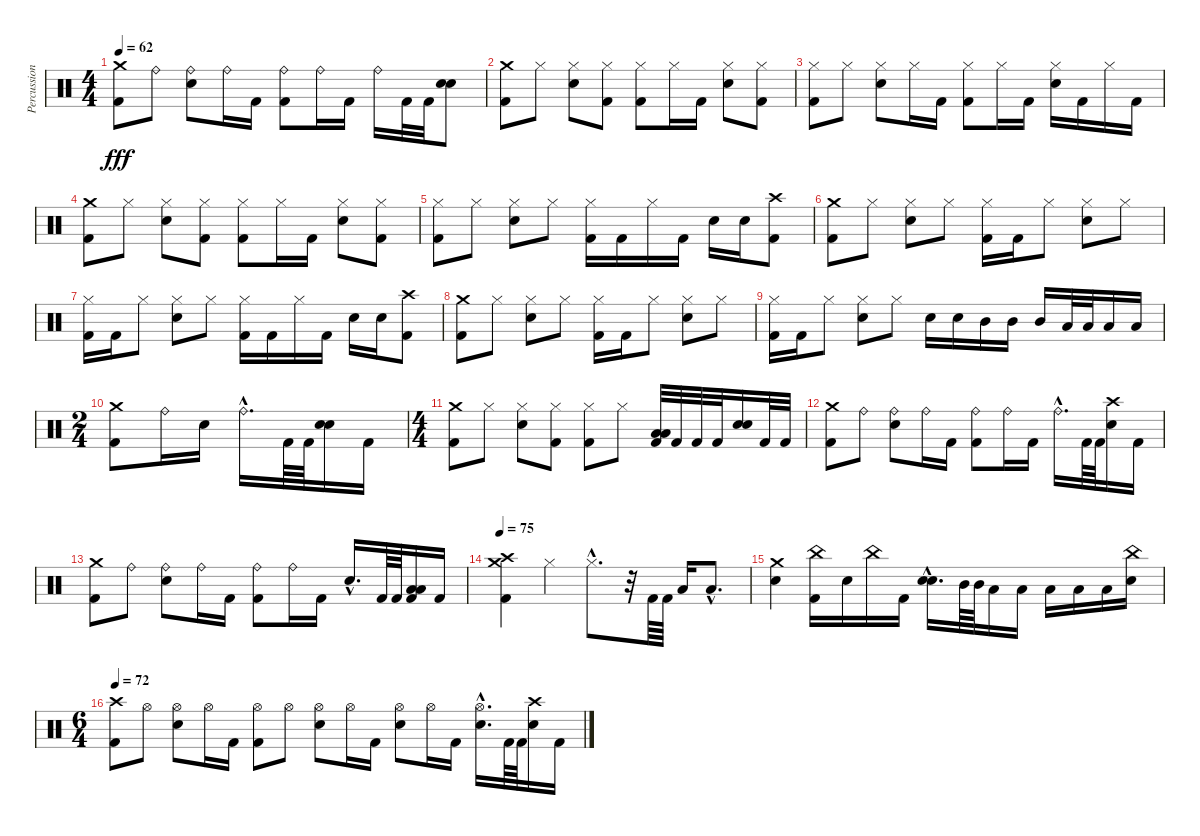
\track ("Percussion" "Percussion") {instrument percussion}
\staff {score}
\articulation defaults
\ts (4 4)
\tempo 62
\clef neutral
\ks c
("Crash medium (hit)" "Kick (hit) 2").8{dy fff} "Ride (bell)".8 ("Ride (bell)" "Snare (hit) 2").8 "Ride (bell)".16 "Kick (hit) 2".16 ("Ride (bell)" "Kick (hit) 2").8 "Ride (bell)".16 "Kick (hit) 2".16 "Ride (bell)".16 "Kick (hit) 2".32 "Kick (hit) 2".32 ("Snare (hit) 2" "Snare (hit) 2").8 |
("Crash medium (hit)" "Kick (hit) 2").8 "Hi-Hat (closed)".8 ("Hi-Hat (closed)" "Snare (hit) 2").8 ("Hi-Hat (closed)" "Kick (hit) 2").8 ("Hi-Hat (closed)" "Kick (hit) 2").8 "Hi-Hat (closed)".16 "Kick (hit) 2".16 ("Hi-Hat (closed)" "Snare (hit) 2").8 ("Hi-Hat (closed)" "Kick (hit) 2").8 |
("Hi-Hat (closed)" "Kick (hit) 2").8 "Hi-Hat (closed)".8 ("Hi-Hat (closed)" "Snare (hit) 2").8 "Hi-Hat (closed)".16 "Kick (hit) 2".16 ("Hi-Hat (closed)" "Kick (hit) 2").8 "Hi-Hat (closed)".16 "Kick (hit) 2".16 ("Hi-Hat (closed)" "Snare (hit) 2").16 "Kick (hit) 2".16 "Hi-Hat (closed)".16 "Kick (hit) 2".16 |
("Crash medium (hit)" "Kick (hit) 2").8 "Hi-Hat (closed)".8 ("Hi-Hat (closed)" "Snare (hit) 2").8 ("Hi-Hat (closed)" "Kick (hit) 2").8 ("Hi-Hat (closed)" "Kick (hit) 2").8 "Hi-Hat (closed)".16 "Kick (hit) 2".16 ("Hi-Hat (closed)" "Snare (hit) 2").8 ("Hi-Hat (closed)" "Kick (hit) 2").8 |
("Hi-Hat (closed)" "Kick (hit) 2").8 "Hi-Hat (closed)".8 ("Hi-Hat (closed)" "Snare (hit) 2").8 "Hi-Hat (closed)".8 ("Hi-Hat (closed)" "Kick (hit) 2").16 "Kick (hit) 2".16 "Hi-Hat (closed)".16 "Kick (hit) 2".16 "Snare (hit) 2".16 "Snare (hit) 2".16 ("Crash high (hit)" "Kick (hit) 2").8 |
("Crash medium (hit)" "Kick (hit) 2").8 "Hi-Hat (closed)".8 ("Hi-Hat (closed)" "Snare (hit) 2").8 "Hi-Hat (closed)".8 ("Hi-Hat (closed)" "Kick (hit) 2").16 "Kick (hit) 2".16 "Hi-Hat (closed)".8 ("Hi-Hat (closed)" "Snare (hit) 2").8 "Hi-Hat (closed)".8 |
("Hi-Hat (closed)" "Kick (hit) 2").16 "Kick (hit) 2".16 "Hi-Hat (closed)".8 ("Hi-Hat (closed)" "Snare (hit) 2").8 "Hi-Hat (closed)".8 ("Hi-Hat (closed)" "Kick (hit) 2").16 "Kick (hit) 2".16 "Hi-Hat (closed)".16 "Kick (hit) 2".16 "Snare (hit) 2".16 "Snare (hit) 2".16 ("Crash high (hit)" "Kick (hit) 2").8 |
("Crash medium (hit)" "Kick (hit) 2").8 "Hi-Hat (closed)".8 ("Hi-Hat (closed)" "Snare (hit) 2").8 "Hi-Hat (closed)".8 ("Hi-Hat (closed)" "Kick (hit) 2").16 "Kick (hit) 2".16 "Hi-Hat (closed)".8 ("Hi-Hat (closed)" "Snare (hit) 2").8 "Hi-Hat (closed)".8 |
("Hi-Hat (closed)" "Kick (hit) 2").16 "Kick (hit) 2".16 "Hi-Hat (closed)".8 ("Hi-Hat (closed)" "Snare (hit) 2").8 "Hi-Hat (closed)".8 "Snare (hit) 2".16 "Snare (hit) 2".16 "Mid Tom (hit)".16 "Mid Tom (hit)".16 "Mid Tom (hit)".16 "Low Tom (hit)".32 "Low Floor Tom (hit)".32 "Low Floor Tom (hit)".16 "Low Floor Tom (hit)".16 |
\ts (2 4)
("Crash medium (hit)" "Kick (hit) 2").8 "Ride (bell)".16 "Snare (hit) 2".16 "Ride (bell)"{hac}.16{d} "Kick (hit) 2".64 "Kick (hit) 2".64 ("Snare (hit) 2" "Snare (hit) 2").16 "Kick (hit) 2".16 |
\ts (4 4)
("Crash medium (hit)" "Kick (hit) 2").8 "Hi-Hat (closed)".8 ("Hi-Hat (closed)" "Snare (hit) 2").8 ("Hi-Hat (closed)" "Kick (hit) 2").8 ("Hi-Hat (closed)" "Kick (hit) 2").8 "Hi-Hat (closed)".8 ("Low Floor Tom (hit)" "Low Floor Tom (hit)" "Kick (hit) 2").32 "Kick (hit) 2".32 "Kick (hit) 2".32 "Kick (hit) 2".32 ("Snare (hit) 2" "Snare (hit) 2").16 "Kick (hit) 2".32 "Kick (hit) 2".32 |
("Crash medium (hit)" "Kick (hit) 2").8 "Ride (bell)".8 ("Ride (bell)" "Snare (hit) 2").8 "Ride (bell)".16 "Kick (hit) 2".16 ("Ride (bell)" "Kick (hit) 2").8 "Ride (bell)".16 "Kick (hit) 2".16 "Ride (bell)"{hac}.16{d} "Kick (hit) 2".64 "Kick (hit) 2".64 ("Crash high (hit)" "Snare (hit) 2").16 "Kick (hit) 2".16 |
("Crash medium (hit)" "Kick (hit) 2").8 "Ride (bell)".8 ("Ride (bell)" "Snare (hit) 2").8 "Ride (bell)".16 "Kick (hit) 2".16 ("Ride (bell)" "Kick (hit) 2").8 "Ride (bell)".16 "Kick (hit) 2".16 "Snare (hit) 2"{hac}.16{d} "Kick (hit) 2".64 "Kick (hit) 2".64 ("Low Floor Tom (hit)" "Low Floor Tom (hit)" "Kick (hit) 2").16 "Kick (hit) 2".16 |
\tempo 75
("Crash medium (hit)" "Crash high (hit)" "Kick (hit) 2").4 "Hi-Hat (closed)".4 "Hi-Hat (closed)"{hac}.8{d} r.32 "Kick (hit) 2".64 "Kick (hit) 2".64 "Low Floor Tom (hit)".16 "Low Floor Tom (hit)"{hac}.8{d} |
("Crash medium (hit)" "Snare (hit) 2").4 ("China (hit)" "Kick (hit) 2").16 "Snare (hit) 2".16 "China (hit)".16 "Kick (hit) 2".16 ("Snare (hit) 2"{hac} "Snare (hit) 2"{hac}).16{d} "Mid Tom (hit)".64 "Mid Tom (hit)".64 "Low Tom (hit)".16 "Low Tom (hit)".16 "Low Tom (hit)".16 "Low Floor Tom (hit)".16 "Low Floor Tom (hit)".16 ("China (hit)" "Snare (hit) 2").16 |
\ts (6 4)
\tempo 72
("Crash high (hit)" "Kick (hit) 2").8 "Hi-Hat (open)".8 ("Hi-Hat (open)" "Snare (hit) 2").8 "Hi-Hat (open)".16 "Kick (hit) 2".16 ("Hi-Hat (open)" "Kick (hit) 2").8 "Hi-Hat (open)".8 ("Hi-Hat (open)" "Snare (hit) 2").8 "Hi-Hat (open)".16 "Kick (hit) 2".16 ("Hi-Hat (open)" "Snare (hit) 2").8 "Hi-Hat (open)".16 "Kick (hit) 2".16 ("Hi-Hat (open)"{hac} "Snare (hit) 2"{hac}).16{d} "Kick (hit) 2".64 "Kick (hit) 2".64 ("Crash high (hit)" "Snare (hit) 2").16 "Kick (hit) 2".16
